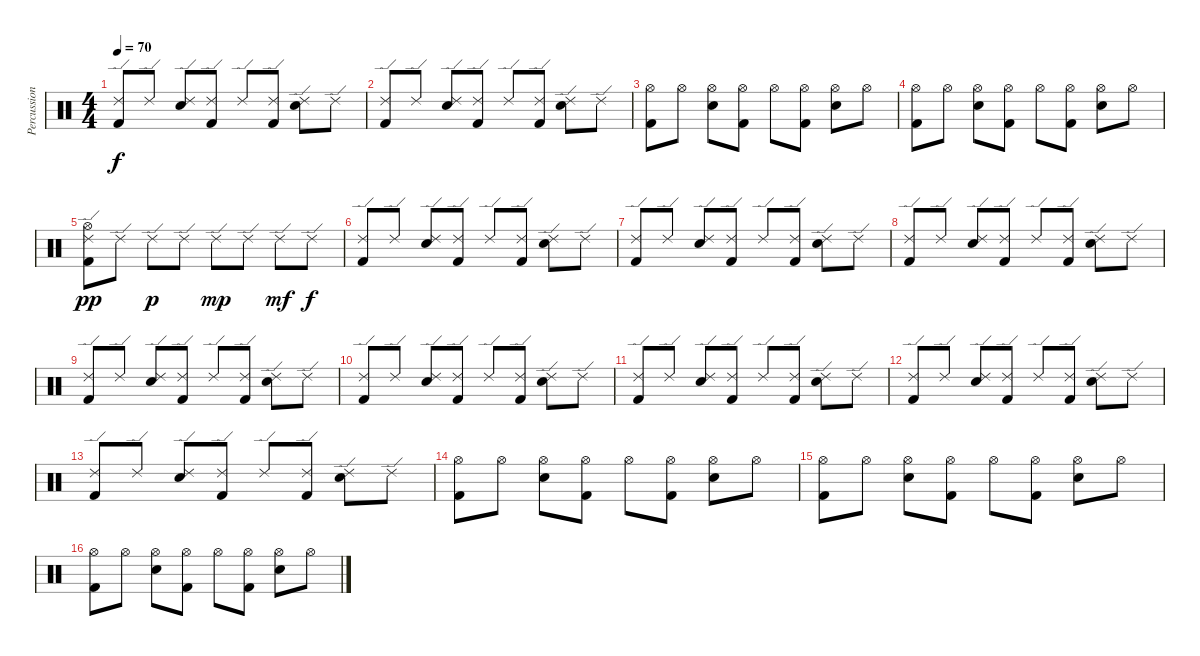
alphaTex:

\track ("Percussion" "Percussion") {instrument percussion}
\staff {score}
\articulation defaults
\ts (4 4)
\tempo 70
\clef neutral
\ks c
("Ride (edge) 2" "Kick (hit) 2").8{dy f} "Ride (edge) 2".8 ("Ride (edge) 2" "Electric Snare (hit)").8 ("Ride (edge) 2" "Kick (hit) 2").8 "Ride (edge) 2".8 ("Ride (edge) 2" "Kick (hit) 2").8 ("Ride (edge) 2" "Electric Snare (hit)").8 "Ride (edge) 2".8 |
("Ride (edge) 2" "Kick (hit) 2").8 "Ride (edge) 2".8 ("Ride (edge) 2" "Electric Snare (hit)").8 ("Ride (edge) 2" "Kick (hit) 2").8 "Ride (edge) 2".8 ("Ride (edge) 2" "Kick (hit) 2").8 ("Ride (edge) 2" "Electric Snare (hit)").8 "Ride (edge) 2".8 |
("Hi-Hat (open)" "Kick (hit) 2").8 "Hi-Hat (open)".8 ("Hi-Hat (open)" "Electric Snare (hit)").8 ("Hi-Hat (open)" "Kick (hit) 2").8 "Hi-Hat (open)".8 ("Hi-Hat (open)" "Kick (hit) 2").8 ("Hi-Hat (open)" "Electric Snare (hit)").8 "Hi-Hat (open)".8 |
("Hi-Hat (open)" "Kick (hit) 2").8 "Hi-Hat (open)".8 ("Hi-Hat (open)" "Electric Snare (hit)").8 ("Hi-Hat (open)" "Kick (hit) 2").8 "Hi-Hat (open)".8 ("Hi-Hat (open)" "Kick (hit) 2").8 ("Hi-Hat (open)" "Electric Snare (hit)").8 "Hi-Hat (open)".8 |
("Ride (edge) 2" "Hi-Hat (open)" "Kick (hit) 2").8{dy pp} "Ride (edge) 2".8 "Ride (edge) 2".8{dy p} "Ride (edge) 2".8 "Ride (edge) 2".8{dy mp} "Ride (edge) 2".8 "Ride (edge) 2".8{dy mf} "Ride (edge) 2".8{dy f} |
("Ride (edge) 2" "Kick (hit) 2").8 "Ride (edge) 2".8 ("Ride (edge) 2" "Electric Snare (hit)").8 ("Ride (edge) 2" "Kick (hit) 2").8 "Ride (edge) 2".8 ("Ride (edge) 2" "Kick (hit) 2").8 ("Ride (edge) 2" "Electric Snare (hit)").8 "Ride (edge) 2".8 |
("Ride (edge) 2" "Kick (hit) 2").8 "Ride (edge) 2".8 ("Ride (edge) 2" "Electric Snare (hit)").8 ("Ride (edge) 2" "Kick (hit) 2").8 "Ride (edge) 2".8 ("Ride (edge) 2" "Kick (hit) 2").8 ("Ride (edge) 2" "Electric Snare (hit)").8 "Ride (edge) 2".8 |
("Ride (edge) 2" "Kick (hit) 2").8 "Ride (edge) 2".8 ("Ride (edge) 2" "Electric Snare (hit)").8 ("Ride (edge) 2" "Kick (hit) 2").8 "Ride (edge) 2".8 ("Ride (edge) 2" "Kick (hit) 2").8 ("Ride (edge) 2" "Electric Snare (hit)").8 "Ride (edge) 2".8 |
("Ride (edge) 2" "Kick (hit) 2").8 "Ride (edge) 2".8 ("Ride (edge) 2" "Electric Snare (hit)").8 ("Ride (edge) 2" "Kick (hit) 2").8 "Ride (edge) 2".8 ("Ride (edge) 2" "Kick (hit) 2").8 ("Ride (edge) 2" "Electric Snare (hit)").8 "Ride (edge) 2".8 |
("Ride (edge) 2" "Kick (hit) 2").8 "Ride (edge) 2".8 ("Ride (edge) 2" "Electric Snare (hit)").8 ("Ride (edge) 2" "Kick (hit) 2").8 "Ride (edge) 2".8 ("Ride (edge) 2" "Kick (hit) 2").8 ("Ride (edge) 2" "Electric Snare (hit)").8 "Ride (edge) 2".8 |
("Ride (edge) 2" "Kick (hit) 2").8 "Ride (edge) 2".8 ("Ride (edge) 2" "Electric Snare (hit)").8 ("Ride (edge) 2" "Kick (hit) 2").8 "Ride (edge) 2".8 ("Ride (edge) 2" "Kick (hit) 2").8 ("Ride (edge) 2" "Electric Snare (hit)").8 "Ride (edge) 2".8 |
("Ride (edge) 2" "Kick (hit) 2").8 "Ride (edge) 2".8 ("Ride (edge) 2" "Electric Snare (hit)").8 ("Ride (edge) 2" "Kick (hit) 2").8 "Ride (edge) 2".8 ("Ride (edge) 2" "Kick (hit) 2").8 ("Ride (edge) 2" "Electric Snare (hit)").8 "Ride (edge) 2".8 |
("Ride (edge) 2" "Kick (hit) 2").8 "Ride (edge) 2".8 ("Ride (edge) 2" "Electric Snare (hit)").8 ("Ride (edge) 2" "Kick (hit) 2").8 "Ride (edge) 2".8 ("Ride (edge) 2" "Kick (hit) 2").8 ("Ride (edge) 2" "Electric Snare (hit)").8 "Ride (edge) 2".8 |
("Hi-Hat (open)" "Kick (hit) 2").8 "Hi-Hat (open)".8 ("Hi-Hat (open)" "Electric Snare (hit)").8 ("Hi-Hat (open)" "Kick (hit) 2").8 "Hi-Hat (open)".8 ("Hi-Hat (open)" "Kick (hit) 2").8 ("Hi-Hat (open)" "Electric Snare (hit)").8 "Hi-Hat (open)".8 |
("Hi-Hat (open)" "Kick (hit) 2").8 "Hi-Hat (open)".8 ("Hi-Hat (open)" "Electric Snare (hit)").8 ("Hi-Hat (open)" "Kick (hit) 2").8 "Hi-Hat (open)".8 ("Hi-Hat (open)" "Kick (hit) 2").8 ("Hi-Hat (open)" "Electric Snare (hit)").8 "Hi-Hat (open)".8 |
("Hi-Hat (open)" "Kick (hit) 2").8 "Hi-Hat (open)".8 ("Hi-Hat (open)" "Electric Snare (hit)").8 ("Hi-Hat (open)" "Kick (hit) 2").8 "Hi-Hat (open)".8 ("Hi-Hat (open)" "Kick (hit) 2").8 ("Hi-Hat (open)" "Electric Snare (hit)").8 "Hi-Hat (open)".8
